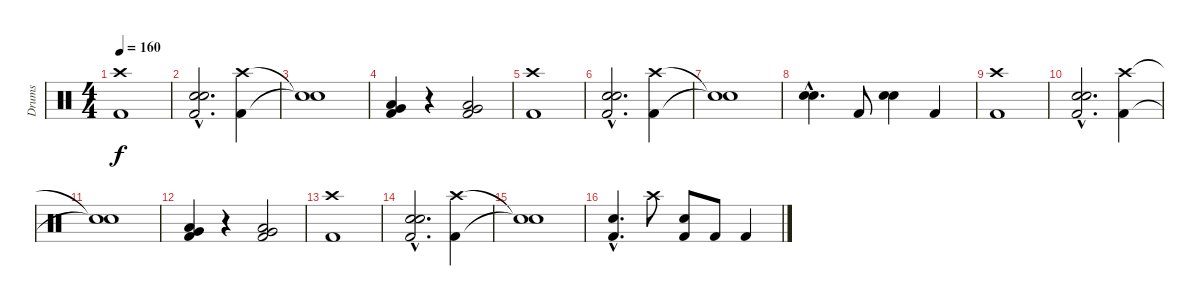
\track ("Drums" "Drums") {instrument percussion}
\staff {score}
\articulation defaults
\ts (4 4)
\tempo 160
\clef neutral
\ks c
("Crash high (hit)" "Kick (hit) 2").1{dy f} |
("Electric Snare (hit)"{hac} "Electric Snare (hit)"{hac} "Kick (hit) 2"{hac}).2{d bd 120} ("Crash high (hit)" "Kick (hit) 2").4 |
("Snare (hit)"{t} "Snare (hit)"{t}).1 |
("Very Low Tom (hit)" "Low Floor Tom (hit)" "Kick (hit) 2").4{bd 60} r.4 ("Very Low Tom (hit)" "Low Floor Tom (hit)" "Kick (hit) 2").2{bd 60} |
("Crash high (hit)" "Kick (hit) 2").1 |
("Electric Snare (hit)"{hac} "Electric Snare (hit)"{hac} "Kick (hit) 2"{hac}).2{d bd 120} ("Crash high (hit)" "Kick (hit) 2").4 |
("Snare (hit)"{t} "Snare (hit)"{t}).1 |
("Electric Snare (hit)"{hac} "Electric Snare (hit)"{hac}).4{d bd 120} "Kick (hit) 2".8 ("Electric Snare (hit)" "Electric Snare (hit)").4{bd 120} "Kick (hit) 2".4 |
("Crash high (hit)" "Kick (hit) 2").1 |
("Electric Snare (hit)"{hac} "Electric Snare (hit)"{hac} "Kick (hit) 2"{hac}).2{d bd 120} ("Crash high (hit)" "Kick (hit) 2").4 |
("Snare (hit)"{t} "Snare (hit)"{t}).1 |
("Very Low Tom (hit)" "Low Floor Tom (hit)" "Kick (hit) 2").4{bd 60} r.4 ("Very Low Tom (hit)" "Low Floor Tom (hit)" "Kick (hit) 2").2{bd 60} |
("Crash high (hit)" "Kick (hit) 2").1 |
("Electric Snare (hit)"{hac} "Electric Snare (hit)"{hac} "Kick (hit) 2"{hac}).2{d bd 120} ("Crash high (hit)" "Kick (hit) 2").4 |
("Snare (hit)"{t} "Snare (hit)"{t}).1 |
("Electric Snare (hit)"{hac} "Kick (hit) 2"{hac}).4{d bd 120} "Crash high (hit)".8 ("Electric Snare (hit)" "Kick (hit) 2").8{bd 120} "Kick (hit) 2".8 "Kick (hit) 2".4
